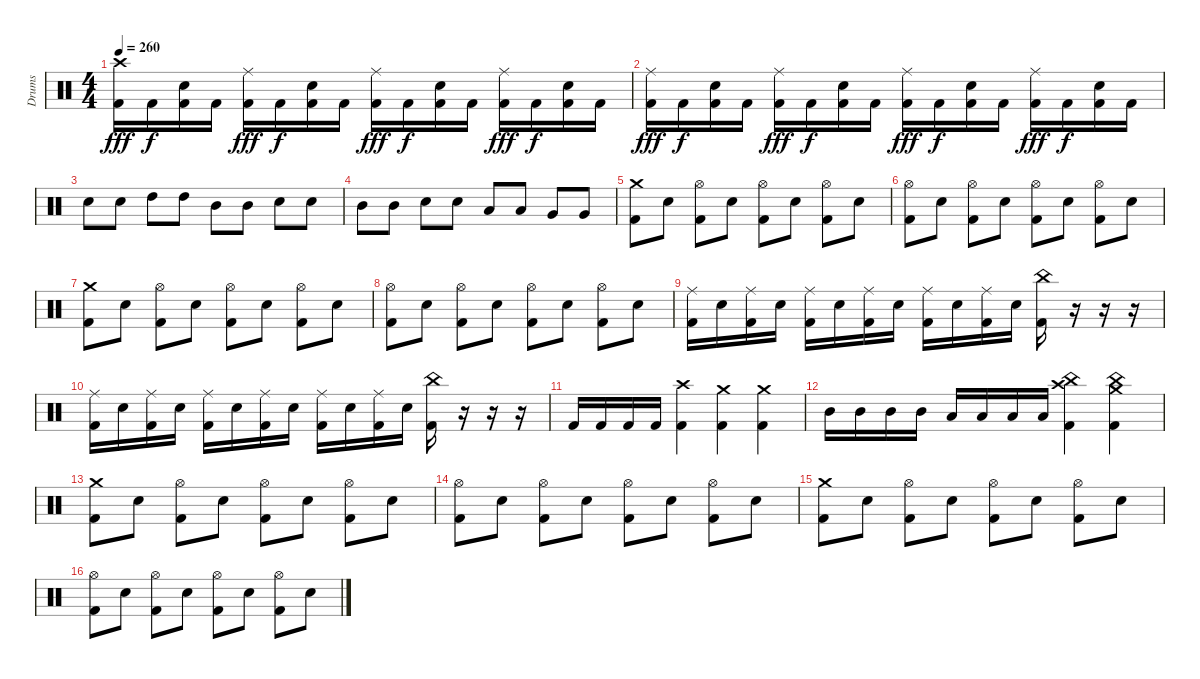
\track ("Drums" "Drums") {instrument percussion}
\staff {score}
\articulation defaults
\ts (4 4)
\tempo 260
\clef neutral
\ks c
("Crash high (hit)" "Kick (hit) 2").16{dy fff} "Kick (hit) 2".16{dy f} ("Electric Snare (hit)" "Kick (hit) 2").16 "Kick (hit) 2".16 ("Ride (middle)" "Kick (hit) 2").16{dy fff} "Kick (hit) 2".16{dy f} ("Electric Snare (hit)" "Kick (hit) 2").16 "Kick (hit) 2".16 ("Ride (middle)" "Kick (hit) 2").16{dy fff} "Kick (hit) 2".16{dy f} ("Electric Snare (hit)" "Kick (hit) 2").16 "Kick (hit) 2".16 ("Ride (middle)" "Kick (hit) 2").16{dy fff} "Kick (hit) 2".16{dy f} ("Electric Snare (hit)" "Kick (hit) 2").16 "Kick (hit) 2".16 |
("Ride (middle)" "Kick (hit) 2").16{dy fff} "Kick (hit) 2".16{dy f} ("Electric Snare (hit)" "Kick (hit) 2").16 "Kick (hit) 2".16 ("Ride (middle)" "Kick (hit) 2").16{dy fff} "Kick (hit) 2".16{dy f} ("Electric Snare (hit)" "Kick (hit) 2").16 "Kick (hit) 2".16 ("Ride (middle)" "Kick (hit) 2").16{dy fff} "Kick (hit) 2".16{dy f} ("Electric Snare (hit)" "Kick (hit) 2").16 "Kick (hit) 2".16 ("Ride (middle)" "Kick (hit) 2").16{dy fff} "Kick (hit) 2".16{dy f} ("Electric Snare (hit)" "Kick (hit) 2").16 "Kick (hit) 2".16 |
"Electric Snare (hit)".8 "Electric Snare (hit)".8 "High Tom (hit)".8 "High Tom (hit)".8 "Mid Tom (hit)".8 "Mid Tom (hit)".8 "Electric Snare (hit)".8 "Electric Snare (hit)".8 |
"Mid Tom (hit)".8 "Mid Tom (hit)".8 "Electric Snare (hit)".8 "Electric Snare (hit)".8 "Low Tom (hit)".8 "Low Tom (hit)".8 "Very Low Tom (hit)".8 "Very Low Tom (hit)".8 |
("Crash medium (hit)" "Kick (hit) 2").8 "Electric Snare (hit)".8 ("Hi-Hat (open)" "Kick (hit) 2").8 "Electric Snare (hit)".8 ("Hi-Hat (open)" "Kick (hit) 2").8 "Electric Snare (hit)".8 ("Hi-Hat (open)" "Kick (hit) 2").8 "Electric Snare (hit)".8 |
("Hi-Hat (open)" "Kick (hit) 2").8 "Electric Snare (hit)".8 ("Hi-Hat (open)" "Kick (hit) 2").8 "Electric Snare (hit)".8 ("Hi-Hat (open)" "Kick (hit) 2").8 "Electric Snare (hit)".8 ("Hi-Hat (open)" "Kick (hit) 2").8 "Electric Snare (hit)".8 |
("Crash medium (hit)" "Kick (hit) 2").8 "Electric Snare (hit)".8 ("Hi-Hat (open)" "Kick (hit) 2").8 "Electric Snare (hit)".8 ("Hi-Hat (open)" "Kick (hit) 2").8 "Electric Snare (hit)".8 ("Hi-Hat (open)" "Kick (hit) 2").8 "Electric Snare (hit)".8 |
("Hi-Hat (open)" "Kick (hit) 2").8 "Electric Snare (hit)".8 ("Hi-Hat (open)" "Kick (hit) 2").8 "Electric Snare (hit)".8 ("Hi-Hat (open)" "Kick (hit) 2").8 "Electric Snare (hit)".8 ("Hi-Hat (open)" "Kick (hit) 2").8 "Electric Snare (hit)".8 |
("Ride (middle)" "Kick (hit) 2").16 "Electric Snare (hit)".16 ("Ride (middle)" "Kick (hit) 2").16 "Electric Snare (hit)".16 ("Ride (middle)" "Kick (hit) 2").16 "Electric Snare (hit)".16 ("Ride (middle)" "Kick (hit) 2").16 "Electric Snare (hit)".16 ("Ride (middle)" "Kick (hit) 2").16 "Electric Snare (hit)".16 ("Ride (middle)" "Kick (hit) 2").16 "Electric Snare (hit)".16 ("China (hit)" "Kick (hit) 2").16 r.16 r.16 r.16 |
("Ride (middle)" "Kick (hit) 2").16 "Electric Snare (hit)".16 ("Ride (middle)" "Kick (hit) 2").16 "Electric Snare (hit)".16 ("Ride (middle)" "Kick (hit) 2").16 "Electric Snare (hit)".16 ("Ride (middle)" "Kick (hit) 2").16 "Electric Snare (hit)".16 ("Ride (middle)" "Kick (hit) 2").16 "Electric Snare (hit)".16 ("Ride (middle)" "Kick (hit) 2").16 "Electric Snare (hit)".16 ("China (hit)" "Kick (hit) 2").16 r.16 r.16 r.16 |
"Kick (hit) 2".16 "Kick (hit) 2".16 "Kick (hit) 2".16 "Kick (hit) 2".16 ("Crash high (hit)" "Kick (hit) 2").4 ("Crash medium (hit)" "Kick (hit) 2").4 ("Crash medium (hit)" "Kick (hit) 2").4 |
"Mid Tom (hit)".16 "Mid Tom (hit)".16 "Mid Tom (hit)".16 "Mid Tom (hit)".16 "Low Tom (hit)".16 "Low Tom (hit)".16 "Low Tom (hit)".16 "Low Tom (hit)".16 ("China (hit)" "Crash high (hit)" "Kick (hit) 2").4 ("China (hit)" "Crash medium (hit)" "Kick (hit) 2").4 |
("Crash medium (hit)" "Kick (hit) 2").8 "Electric Snare (hit)".8 ("Hi-Hat (open)" "Kick (hit) 2").8 "Electric Snare (hit)".8 ("Hi-Hat (open)" "Kick (hit) 2").8 "Electric Snare (hit)".8 ("Hi-Hat (open)" "Kick (hit) 2").8 "Electric Snare (hit)".8 |
("Hi-Hat (open)" "Kick (hit) 2").8 "Electric Snare (hit)".8 ("Hi-Hat (open)" "Kick (hit) 2").8 "Electric Snare (hit)".8 ("Hi-Hat (open)" "Kick (hit) 2").8 "Electric Snare (hit)".8 ("Hi-Hat (open)" "Kick (hit) 2").8 "Electric Snare (hit)".8 |
("Crash medium (hit)" "Kick (hit) 2").8 "Electric Snare (hit)".8 ("Hi-Hat (open)" "Kick (hit) 2").8 "Electric Snare (hit)".8 ("Hi-Hat (open)" "Kick (hit) 2").8 "Electric Snare (hit)".8 ("Hi-Hat (open)" "Kick (hit) 2").8 "Electric Snare (hit)".8 |
("Hi-Hat (open)" "Kick (hit) 2").8 "Electric Snare (hit)".8 ("Hi-Hat (open)" "Kick (hit) 2").8 "Electric Snare (hit)".8 ("Hi-Hat (open)" "Kick (hit) 2").8 "Electric Snare (hit)".8 ("Hi-Hat (open)" "Kick (hit) 2").8 "Electric Snare (hit)".8
